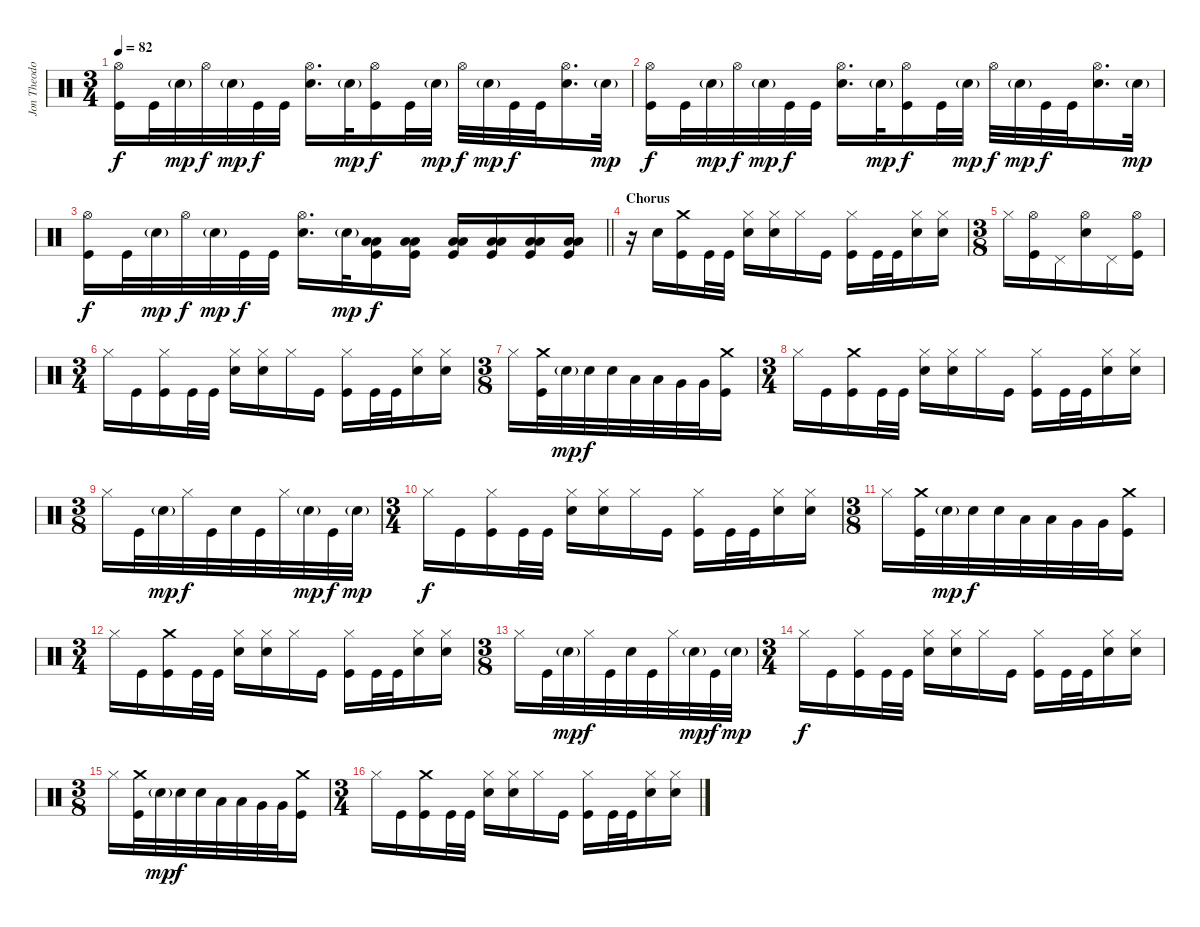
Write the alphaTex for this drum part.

\track ("Jon Theodore" "Jon Theodo") {instrument percussion}
\staff {score}
\articulation defaults
\ts (3 4)
\tempo 82
\clef neutral
\ks c
("Hi-Hat (open)" "Kick (hit)").16{dy f} "Kick (hit)".32 "Snare (hit) 2"{g}.32{dy mp} "Hi-Hat (open)".32{dy f} "Snare (hit) 2"{g}.32{dy mp} "Kick (hit)".32{dy f} "Kick (hit)".32 ("Hi-Hat (open)" "Snare (hit) 2").16{d} "Snare (hit) 2"{g}.32{dy mp} ("Hi-Hat (open)" "Kick (hit)").16{dy f} "Kick (hit)".32 "Snare (hit) 2"{g}.32{dy mp} "Hi-Hat (open)".32{dy f} "Snare (hit) 2"{g}.32{dy mp} "Kick (hit)".32{dy f} "Kick (hit)".32 ("Hi-Hat (open)" "Snare (hit) 2").16{d} "Snare (hit) 2"{g}.32{dy mp} |
("Hi-Hat (open)" "Kick (hit)").16{dy f} "Kick (hit)".32 "Snare (hit) 2"{g}.32{dy mp} "Hi-Hat (open)".32{dy f} "Snare (hit) 2"{g}.32{dy mp} "Kick (hit)".32{dy f} "Kick (hit)".32 ("Hi-Hat (open)" "Snare (hit) 2").16{d} "Snare (hit) 2"{g}.32{dy mp} ("Hi-Hat (open)" "Kick (hit)").16{dy f} "Kick (hit)".32 "Snare (hit) 2"{g}.32{dy mp} "Hi-Hat (open)".32{dy f} "Snare (hit) 2"{g}.32{dy mp} "Kick (hit)".32{dy f} "Kick (hit)".32 ("Hi-Hat (open)" "Snare (hit) 2").16{d} "Snare (hit) 2"{g}.32{dy mp} |
\barLineRight lightlight
("Hi-Hat (open)" "Kick (hit)").16{dy f} "Kick (hit)".32 "Snare (hit) 2"{g}.32{dy mp} "Hi-Hat (open)".32{dy f} "Snare (hit) 2"{g}.32{dy mp} "Kick (hit)".32{dy f} "Kick (hit)".32 ("Hi-Hat (open)" "Snare (hit) 2").16{d} "Snare (hit) 2"{g}.32{dy mp} ("Low Tom (hit)" "Low Floor Tom (hit)" "Kick (hit)").16{dy f} ("Low Tom (hit)" "Low Floor Tom (hit)" "Kick (hit)").16 ("Low Tom (hit)" "Low Floor Tom (hit)" "Kick (hit)").16 ("Low Tom (hit)" "Low Floor Tom (hit)" "Kick (hit)").16 ("Low Tom (hit)" "Low Floor Tom (hit)" "Kick (hit)").16 ("Low Tom (hit)" "Low Floor Tom (hit)" "Kick (hit)").16 |
\section ("" "Chorus")
r.16 "Snare (hit) 2".16 ("Crash medium (hit)" "Kick (hit)").16 "Kick (hit)".32 "Kick (hit)".32 ("Hi-Hat (closed)" "Snare (hit) 2").16 ("Hi-Hat (closed)" "Snare (hit) 2").16 "Hi-Hat (closed)".16 "Kick (hit)".16 ("Hi-Hat (closed)" "Kick (hit)").16 "Kick (hit)".32 "Kick (hit)".32 ("Hi-Hat (closed)" "Snare (hit) 2").16 ("Hi-Hat (closed)" "Snare (hit) 2").16 |
\ts (3 8)
"Hi-Hat (closed)".16 ("Hi-Hat (open)" "Kick (hit)").16 "Pedal Hi-Hat (hit)".16 ("Hi-Hat (open)" "Snare (hit) 2").16 "Pedal Hi-Hat (hit)".16 ("Hi-Hat (open)" "Kick (hit)").16 |
\ts (3 4)
"Hi-Hat (closed)".16 "Kick (hit)".16 ("Hi-Hat (closed)" "Kick (hit)").16 "Kick (hit)".32 "Kick (hit)".32 ("Hi-Hat (closed)" "Snare (hit) 2").16 ("Hi-Hat (closed)" "Snare (hit) 2").16 "Hi-Hat (closed)".16 "Kick (hit)".16 ("Hi-Hat (closed)" "Kick (hit)").16 "Kick (hit)".32 "Kick (hit)".32 ("Hi-Hat (closed)" "Snare (hit) 2").16 ("Hi-Hat (closed)" "Snare (hit) 2").16 |
\ts (3 8)
"Hi-Hat (closed)".16 ("Crash medium (hit)" "Kick (hit)").32 "Snare (hit) 2"{g}.32{dy mp} "Snare (hit) 2".32{dy f} "Snare (hit) 2".32 "Low Tom (hit)".32 "Low Tom (hit)".32 "Very Low Tom (hit)".32 "Very Low Tom (hit)".32 ("Crash medium (hit)" "Kick (hit)").16 |
\ts (3 4)
"Hi-Hat (closed)".16 "Kick (hit)".16 ("Crash medium (hit)" "Kick (hit)").16 "Kick (hit)".32 "Kick (hit)".32 ("Hi-Hat (closed)" "Snare (hit) 2").16 ("Hi-Hat (closed)" "Snare (hit) 2").16 "Hi-Hat (closed)".16 "Kick (hit)".16 ("Hi-Hat (closed)" "Kick (hit)").16 "Kick (hit)".32 "Kick (hit)".32 ("Hi-Hat (closed)" "Snare (hit) 2").16 ("Hi-Hat (closed)" "Snare (hit) 2").16 |
\ts (3 8)
"Hi-Hat (closed)".16 "Kick (hit)".32 "Snare (hit) 2"{g}.32{dy mp} "Hi-Hat (closed)".32{dy f} "Kick (hit)".32 "Snare (hit) 2".32 "Kick (hit)".32 "Hi-Hat (closed)".32 "Snare (hit) 2"{g}.32{dy mp} "Kick (hit)".32{dy f} "Snare (hit) 2"{g}.32{dy mp} |
\ts (3 4)
"Hi-Hat (closed)".16{dy f} "Kick (hit)".16 ("Hi-Hat (closed)" "Kick (hit)").16 "Kick (hit)".32 "Kick (hit)".32 ("Hi-Hat (closed)" "Snare (hit) 2").16 ("Hi-Hat (closed)" "Snare (hit) 2").16 "Hi-Hat (closed)".16 "Kick (hit)".16 ("Hi-Hat (closed)" "Kick (hit)").16 "Kick (hit)".32 "Kick (hit)".32 ("Hi-Hat (closed)" "Snare (hit) 2").16 ("Hi-Hat (closed)" "Snare (hit) 2").16 |
\ts (3 8)
"Hi-Hat (closed)".16 ("Crash medium (hit)" "Kick (hit)").32 "Snare (hit) 2"{g}.32{dy mp} "Snare (hit) 2".32{dy f} "Snare (hit) 2".32 "Low Tom (hit)".32 "Low Tom (hit)".32 "Very Low Tom (hit)".32 "Very Low Tom (hit)".32 ("Crash medium (hit)" "Kick (hit)").16 |
\ts (3 4)
"Hi-Hat (closed)".16 "Kick (hit)".16 ("Crash medium (hit)" "Kick (hit)").16 "Kick (hit)".32 "Kick (hit)".32 ("Hi-Hat (closed)" "Snare (hit) 2").16 ("Hi-Hat (closed)" "Snare (hit) 2").16 "Hi-Hat (closed)".16 "Kick (hit)".16 ("Hi-Hat (closed)" "Kick (hit)").16 "Kick (hit)".32 "Kick (hit)".32 ("Hi-Hat (closed)" "Snare (hit) 2").16 ("Hi-Hat (closed)" "Snare (hit) 2").16 |
\ts (3 8)
"Hi-Hat (closed)".16 "Kick (hit)".32 "Snare (hit) 2"{g}.32{dy mp} "Hi-Hat (closed)".32{dy f} "Kick (hit)".32 "Snare (hit) 2".32 "Kick (hit)".32 "Hi-Hat (closed)".32 "Snare (hit) 2"{g}.32{dy mp} "Kick (hit)".32{dy f} "Snare (hit) 2"{g}.32{dy mp} |
\ts (3 4)
"Hi-Hat (closed)".16{dy f} "Kick (hit)".16 ("Hi-Hat (closed)" "Kick (hit)").16 "Kick (hit)".32 "Kick (hit)".32 ("Hi-Hat (closed)" "Snare (hit) 2").16 ("Hi-Hat (closed)" "Snare (hit) 2").16 "Hi-Hat (closed)".16 "Kick (hit)".16 ("Hi-Hat (closed)" "Kick (hit)").16 "Kick (hit)".32 "Kick (hit)".32 ("Hi-Hat (closed)" "Snare (hit) 2").16 ("Hi-Hat (closed)" "Snare (hit) 2").16 |
\ts (3 8)
"Hi-Hat (closed)".16 ("Crash medium (hit)" "Kick (hit)").32 "Snare (hit) 2"{g}.32{dy mp} "Snare (hit) 2".32{dy f} "Snare (hit) 2".32 "Low Tom (hit)".32 "Low Tom (hit)".32 "Very Low Tom (hit)".32 "Very Low Tom (hit)".32 ("Crash medium (hit)" "Kick (hit)").16 |
\ts (3 4)
"Hi-Hat (closed)".16 "Kick (hit)".16 ("Crash medium (hit)" "Kick (hit)").16 "Kick (hit)".32 "Kick (hit)".32 ("Hi-Hat (closed)" "Snare (hit) 2").16 ("Hi-Hat (closed)" "Snare (hit) 2").16 "Hi-Hat (closed)".16 "Kick (hit)".16 ("Hi-Hat (closed)" "Kick (hit)").16 "Kick (hit)".32 "Kick (hit)".32 ("Hi-Hat (closed)" "Snare (hit) 2").16 ("Hi-Hat (closed)" "Snare (hit) 2").16
